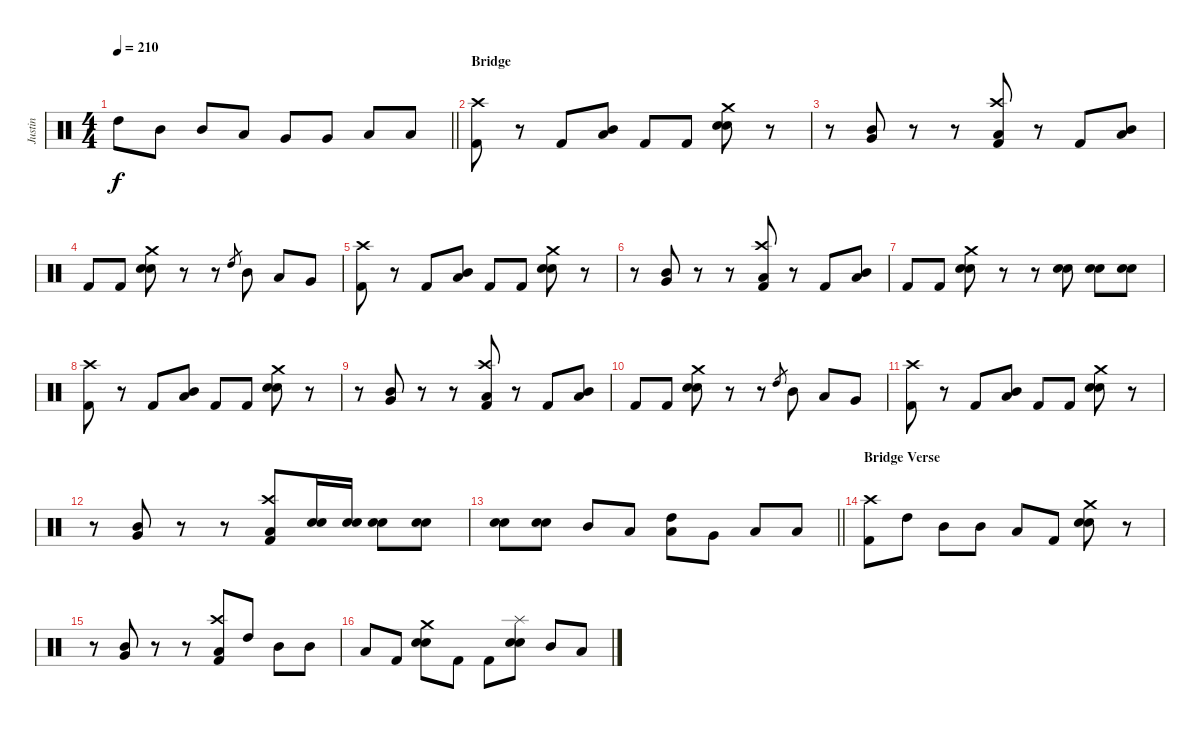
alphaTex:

\track ("Justin" "Justin") {instrument percussion}
\staff {score}
\articulation defaults
\ts (4 4)
\tempo 210
\clef neutral
\barLineRight lightlight
\ks c "High Tom (hit)".8{dy f} "Mid Tom (hit)".8 "Mid Tom (hit)".8 "Low Tom (hit)".8 "Very Low Tom (hit)".8 "Very Low Tom (hit)".8 "Low Floor Tom (hit)".8 "Low Floor Tom (hit)".8
|
\section ("" "Bridge")
("Crash high (hit)" "Kick (hit) 2").8 r.8 "Kick (hit) 2".8 ("Mid Tom (hit)" "Low Tom (hit)").8 "Kick (hit) 2".8 "Kick (hit) 2".8 ("Crash medium (hit)" "Electric Snare (hit)" "Snare (hit) 2").8 r.8 |
r.8 ("Mid Tom (hit)" "Very Low Tom (hit)").8 r.8 r.8 ("Crash high (hit)" "Low Floor Tom (hit)" "Kick (hit) 2").8 r.8 "Kick (hit) 2".8 ("Mid Tom (hit)" "Low Tom (hit)").8 |
"Kick (hit) 2".8 "Kick (hit) 2".8 ("Crash medium (hit)" "Electric Snare (hit)" "Snare (hit) 2").8 r.8 r.8 "High Tom (hit)".8{gr} "Mid Tom (hit)".8 "Low Tom (hit)".8 "Very Low Tom (hit)".8 |
("Crash high (hit)" "Kick (hit) 2").8 r.8 "Kick (hit) 2".8 ("Mid Tom (hit)" "Low Tom (hit)").8 "Kick (hit) 2".8 "Kick (hit) 2".8 ("Crash medium (hit)" "Electric Snare (hit)" "Snare (hit) 2").8 r.8 |
r.8 ("Mid Tom (hit)" "Very Low Tom (hit)").8 r.8 r.8 ("Crash high (hit)" "Low Floor Tom (hit)" "Kick (hit) 2").8 r.8 "Kick (hit) 2".8 ("Mid Tom (hit)" "Low Tom (hit)").8 |
"Kick (hit) 2".8 "Kick (hit) 2".8 ("Crash medium (hit)" "Electric Snare (hit)" "Snare (hit) 2").8 r.8 r.8 ("Electric Snare (hit)" "Snare (hit) 2").8 ("Electric Snare (hit)" "Snare (hit) 2").8 ("Electric Snare (hit)" "Snare (hit) 2").8 |
("Crash high (hit)" "Kick (hit) 2").8 r.8 "Kick (hit) 2".8 ("Mid Tom (hit)" "Low Tom (hit)").8 "Kick (hit) 2".8 "Kick (hit) 2".8 ("Crash medium (hit)" "Electric Snare (hit)" "Snare (hit) 2").8 r.8 |
r.8 ("Mid Tom (hit)" "Very Low Tom (hit)").8 r.8 r.8 ("Crash high (hit)" "Low Floor Tom (hit)" "Kick (hit) 2").8 r.8 "Kick (hit) 2".8 ("Mid Tom (hit)" "Low Tom (hit)").8 |
"Kick (hit) 2".8 "Kick (hit) 2".8 ("Crash medium (hit)" "Electric Snare (hit)" "Snare (hit) 2").8 r.8 r.8 "High Tom (hit)".8{gr} "Mid Tom (hit)".8 "Low Tom (hit)".8 "Very Low Tom (hit)".8 |
("Crash high (hit)" "Kick (hit) 2").8 r.8 "Kick (hit) 2".8 ("Mid Tom (hit)" "Low Tom (hit)").8 "Kick (hit) 2".8 "Kick (hit) 2".8 ("Crash medium (hit)" "Electric Snare (hit)" "Snare (hit) 2").8 r.8 |
r.8 ("Mid Tom (hit)" "Very Low Tom (hit)").8 r.8 r.8 ("Crash high (hit)" "Low Floor Tom (hit)" "Kick (hit) 2").8 ("Electric Snare (hit)" "Snare (hit) 2").16 ("Electric Snare (hit)" "Snare (hit) 2").16 ("Electric Snare (hit)" "Snare (hit) 2").8 ("Electric Snare (hit)" "Snare (hit) 2").8 |
\barLineRight lightlight
("Electric Snare (hit)" "Snare (hit) 2").8 ("Electric Snare (hit)" "Snare (hit) 2").8 "Mid Tom (hit)".8 "Low Tom (hit)".8 ("High Tom (hit)" "Low Tom (hit)").8 "Very Low Tom (hit)".8 "Low Floor Tom (hit)".8 "Low Floor Tom (hit)".8 |
\section ("" "Bridge Verse")
("Crash high (hit)" "Kick (hit) 2").8 "High Tom (hit)".8 "Mid Tom (hit)".8 "Mid Tom (hit)".8 "Low Tom (hit)".8 "Kick (hit) 2".8 ("Crash medium (hit)" "Electric Snare (hit)" "Snare (hit) 2").8 r.8 |
r.8 ("Mid Tom (hit)" "Very Low Tom (hit)").8 r.8 r.8 ("Crash high (hit)" "Low Floor Tom (hit)" "Kick (hit) 2").8 "High Tom (hit)".8 "Mid Tom (hit)".8 "Mid Tom (hit)".8 |
"Low Tom (hit)".8 "Kick (hit) 2".8 ("Crash medium (hit)" "Electric Snare (hit)" "Snare (hit) 2").8 "Kick (hit) 2".8 "Kick (hit) 2".8 ("Splash (hit)" "Electric Snare (hit)" "Snare (hit) 2").8 "Mid Tom (hit)".8 "Low Tom (hit)".8
